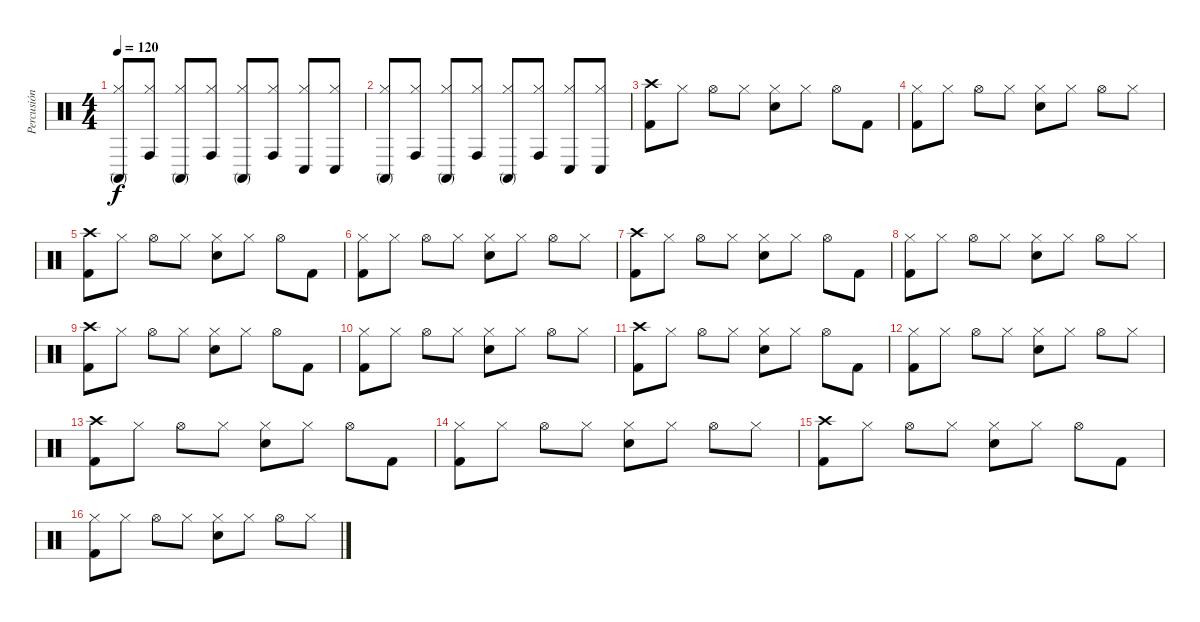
\track ("Percusión" "Percusión") {instrument percussion}
\staff {score}
\articulation defaults
\ts (4 4)
\tempo 120
\clef neutral
\ks c
("Hi-Hat (closed)" "Conga high (mute)").8{dy f} ("Hi-Hat (closed)" "Conga high (hit)").8 ("Hi-Hat (closed)" "Conga high (mute)").8 ("Hi-Hat (closed)" "Conga high (hit)").8 ("Hi-Hat (closed)" "Conga high (mute)").8 ("Hi-Hat (closed)" "Conga high (hit)").8 ("Hi-Hat (closed)" "Conga low (hit)").8 ("Hi-Hat (closed)" "Conga low (hit)").8 |
("Hi-Hat (closed)" "Conga high (mute)").8 ("Hi-Hat (closed)" "Conga high (hit)").8 ("Hi-Hat (closed)" "Conga high (mute)").8 ("Hi-Hat (closed)" "Conga high (hit)").8 ("Hi-Hat (closed)" "Conga high (mute)").8 ("Hi-Hat (closed)" "Conga high (hit)").8 ("Hi-Hat (closed)" "Conga low (hit)").8 ("Hi-Hat (closed)" "Conga low (hit)").8 |
("Crash high (hit)" "Kick (hit) 2").8 "Hi-Hat (closed)".8 "Hi-Hat (open)".8 "Hi-Hat (closed)".8 ("Electric Snare (hit)" "Hi-Hat (closed)").8 "Hi-Hat (closed)".8 "Hi-Hat (open)".8 "Kick (hit) 2".8 |
("Kick (hit) 2" "Hi-Hat (closed)").8 "Hi-Hat (closed)".8 "Hi-Hat (open)".8 "Hi-Hat (closed)".8 ("Electric Snare (hit)" "Hi-Hat (closed)").8 "Hi-Hat (closed)".8 "Hi-Hat (open)".8 "Hi-Hat (closed)".8 |
("Crash high (hit)" "Kick (hit) 2").8 "Hi-Hat (closed)".8 "Hi-Hat (open)".8 "Hi-Hat (closed)".8 ("Electric Snare (hit)" "Hi-Hat (closed)").8 "Hi-Hat (closed)".8 "Hi-Hat (open)".8 "Kick (hit) 2".8 |
("Kick (hit) 2" "Hi-Hat (closed)").8 "Hi-Hat (closed)".8 "Hi-Hat (open)".8 "Hi-Hat (closed)".8 ("Electric Snare (hit)" "Hi-Hat (closed)").8 "Hi-Hat (closed)".8 "Hi-Hat (open)".8 "Hi-Hat (closed)".8 |
("Crash high (hit)" "Kick (hit) 2").8 "Hi-Hat (closed)".8 "Hi-Hat (open)".8 "Hi-Hat (closed)".8 ("Electric Snare (hit)" "Hi-Hat (closed)").8 "Hi-Hat (closed)".8 "Hi-Hat (open)".8 "Kick (hit) 2".8 |
("Kick (hit) 2" "Hi-Hat (closed)").8 "Hi-Hat (closed)".8 "Hi-Hat (open)".8 "Hi-Hat (closed)".8 ("Electric Snare (hit)" "Hi-Hat (closed)").8 "Hi-Hat (closed)".8 "Hi-Hat (open)".8 "Hi-Hat (closed)".8 |
("Crash high (hit)" "Kick (hit) 2").8 "Hi-Hat (closed)".8 "Hi-Hat (open)".8 "Hi-Hat (closed)".8 ("Electric Snare (hit)" "Hi-Hat (closed)").8 "Hi-Hat (closed)".8 "Hi-Hat (open)".8 "Kick (hit) 2".8 |
("Kick (hit) 2" "Hi-Hat (closed)").8 "Hi-Hat (closed)".8 "Hi-Hat (open)".8 "Hi-Hat (closed)".8 ("Electric Snare (hit)" "Hi-Hat (closed)").8 "Hi-Hat (closed)".8 "Hi-Hat (open)".8 "Hi-Hat (closed)".8 |
("Crash high (hit)" "Kick (hit) 2").8 "Hi-Hat (closed)".8 "Hi-Hat (open)".8 "Hi-Hat (closed)".8 ("Electric Snare (hit)" "Hi-Hat (closed)").8 "Hi-Hat (closed)".8 "Hi-Hat (open)".8 "Kick (hit) 2".8 |
("Kick (hit) 2" "Hi-Hat (closed)").8 "Hi-Hat (closed)".8 "Hi-Hat (open)".8 "Hi-Hat (closed)".8 ("Electric Snare (hit)" "Hi-Hat (closed)").8 "Hi-Hat (closed)".8 "Hi-Hat (open)".8 "Hi-Hat (closed)".8 |
("Crash high (hit)" "Kick (hit) 2").8 "Hi-Hat (closed)".8 "Hi-Hat (open)".8 "Hi-Hat (closed)".8 ("Electric Snare (hit)" "Hi-Hat (closed)").8 "Hi-Hat (closed)".8 "Hi-Hat (open)".8 "Kick (hit) 2".8 |
("Kick (hit) 2" "Hi-Hat (closed)").8 "Hi-Hat (closed)".8 "Hi-Hat (open)".8 "Hi-Hat (closed)".8 ("Electric Snare (hit)" "Hi-Hat (closed)").8 "Hi-Hat (closed)".8 "Hi-Hat (open)".8 "Hi-Hat (closed)".8 |
("Crash high (hit)" "Kick (hit) 2").8 "Hi-Hat (closed)".8 "Hi-Hat (open)".8 "Hi-Hat (closed)".8 ("Electric Snare (hit)" "Hi-Hat (closed)").8 "Hi-Hat (closed)".8 "Hi-Hat (open)".8 "Kick (hit) 2".8 |
("Kick (hit) 2" "Hi-Hat (closed)").8 "Hi-Hat (closed)".8 "Hi-Hat (open)".8 "Hi-Hat (closed)".8 ("Electric Snare (hit)" "Hi-Hat (closed)").8 "Hi-Hat (closed)".8 "Hi-Hat (open)".8 "Hi-Hat (closed)".8
